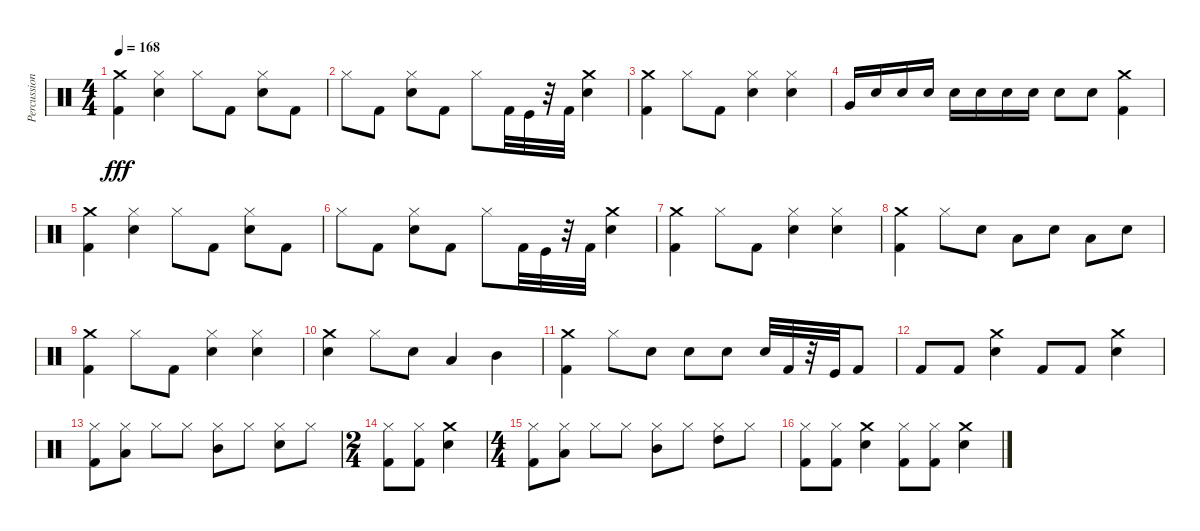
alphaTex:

\track ("Percussion" "Percussion") {instrument percussion}
\staff {score}
\articulation defaults
\ts (4 4)
\tempo 168
\clef neutral
\ks c
("Kick (hit) 2" "Crash medium (hit)").4{dy fff} ("Hi-Hat (closed)" "Snare (hit) 2").4 "Hi-Hat (closed)".8 "Kick (hit) 2".8 ("Snare (hit) 2" "Hi-Hat (closed)").8 "Kick (hit) 2".8 |
"Hi-Hat (closed)".8 "Kick (hit) 2".8 ("Snare (hit) 2" "Hi-Hat (closed)").8 "Kick (hit) 2".8 "Hi-Hat (closed)".8 "Kick (hit) 2".32 "Kick (hit)".32 r.32 "Kick (hit) 2".32 ("Crash medium (hit)" "Snare (hit) 2").4 |
("Kick (hit) 2" "Crash medium (hit)").4 "Hi-Hat (closed)".8 "Kick (hit) 2".8 ("Snare (hit) 2" "Hi-Hat (closed)").4 ("Hi-Hat (closed)" "Snare (hit) 2").4 |
"Very Low Tom (hit)".16 "Snare (hit) 2".16 "Snare (hit) 2".16 "Snare (hit) 2".16 "Snare (hit) 2".16 "Snare (hit) 2".16 "Snare (hit) 2".16 "Snare (hit) 2".16 "Snare (hit) 2".8 "Snare (hit) 2".8 ("Crash medium (hit)" "Kick (hit) 2").4 |
("Kick (hit) 2" "Crash medium (hit)").4 ("Hi-Hat (closed)" "Snare (hit) 2").4 "Hi-Hat (closed)".8 "Kick (hit) 2".8 ("Snare (hit) 2" "Hi-Hat (closed)").8 "Kick (hit) 2".8 |
"Hi-Hat (closed)".8 "Kick (hit) 2".8 ("Snare (hit) 2" "Hi-Hat (closed)").8 "Kick (hit) 2".8 "Hi-Hat (closed)".8 "Kick (hit) 2".32 "Kick (hit)".32 r.32 "Kick (hit) 2".32 ("Crash medium (hit)" "Snare (hit) 2").4 |
("Kick (hit) 2" "Crash medium (hit)").4 "Hi-Hat (closed)".8 "Kick (hit) 2".8 ("Snare (hit) 2" "Hi-Hat (closed)").4 ("Hi-Hat (closed)" "Snare (hit) 2").4 |
("Kick (hit) 2" "Crash medium (hit)").4 "Hi-Hat (closed)".8 "Snare (hit) 2".8 "Low Tom (hit)".8 "Snare (hit) 2".8 "Low Tom (hit)".8 "Snare (hit) 2".8 |
("Kick (hit) 2" "Crash medium (hit)").4 "Hi-Hat (closed)".8 "Kick (hit) 2".8 ("Snare (hit) 2" "Hi-Hat (closed)").4 ("Hi-Hat (closed)" "Snare (hit) 2").4 |
("Snare (hit) 2" "Crash medium (hit)").4 "Hi-Hat (closed)".8 "Snare (hit) 2".8 "Low Tom (hit)".4 "Mid Tom (hit)".4 |
("Kick (hit) 2" "Crash medium (hit)").4 "Hi-Hat (closed)".8 "Snare (hit) 2".8 "Snare (hit) 2".8 "Snare (hit) 2".8 "Snare (hit) 2".32 "Kick (hit) 2".32 r.32 "Kick (hit)".32 "Kick (hit) 2".8 |
"Kick (hit) 2".8 "Kick (hit) 2".8 ("Snare (hit) 2" "Crash medium (hit)").4 "Kick (hit) 2".8 "Kick (hit) 2".8 ("Crash medium (hit)" "Snare (hit) 2").4 |
("Hi-Hat (closed)" "Kick (hit) 2").8 ("Low Tom (hit)" "Hi-Hat (closed)").8 "Hi-Hat (closed)".8 "Hi-Hat (closed)".8 ("Mid Tom (hit)" "Hi-Hat (closed)").8 "Hi-Hat (closed)".8 ("Snare (hit) 2" "Hi-Hat (closed)").8 "Hi-Hat (closed)".8 |
\ts (2 4)
("Kick (hit) 2" "Hi-Hat (closed)").8 ("Kick (hit) 2" "Hi-Hat (closed)").8 ("Snare (hit) 2" "Crash medium (hit)").4 |
\ts (4 4)
("Hi-Hat (closed)" "Kick (hit) 2").8 ("Low Tom (hit)" "Hi-Hat (closed)").8 "Hi-Hat (closed)".8 "Hi-Hat (closed)".8 ("Mid Tom (hit)" "Hi-Hat (closed)").8 "Hi-Hat (closed)".8 ("Hi-Hat (closed)" "High Tom (hit)").8 "Hi-Hat (closed)".8 |
("Hi-Hat (closed)" "Kick (hit) 2").8 ("Hi-Hat (closed)" "Kick (hit) 2").8 ("Snare (hit) 2" "Crash medium (hit)").4 ("Kick (hit) 2" "Hi-Hat (closed)").8 ("Kick (hit) 2" "Hi-Hat (closed)").8 ("Crash medium (hit)" "Snare (hit) 2").4
